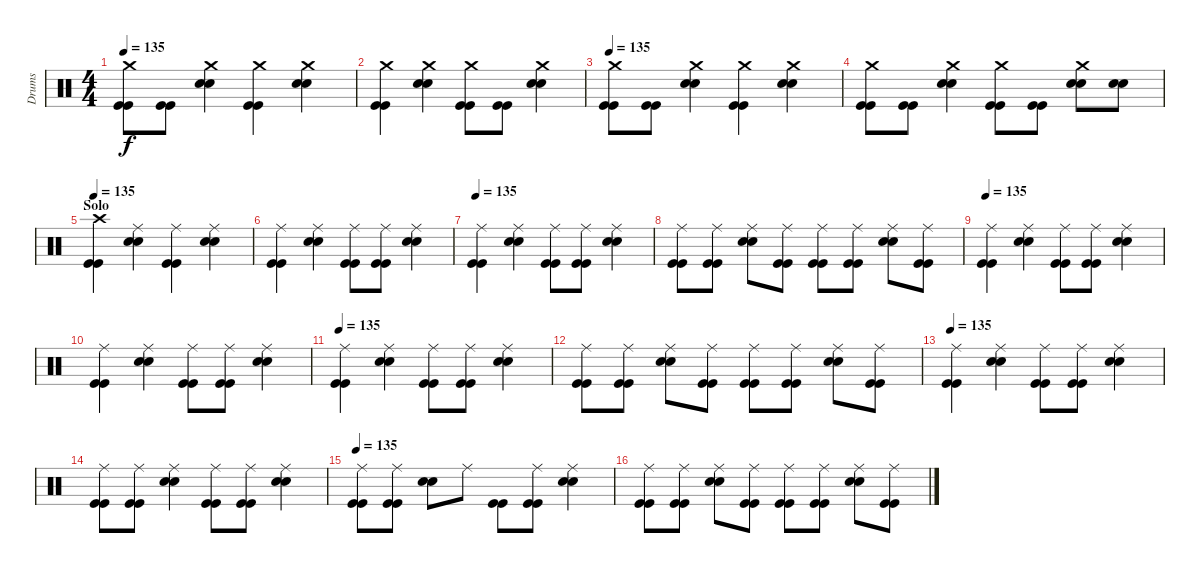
\track ("Drums" "Drums") {instrument percussion}
\staff {score}
\articulation defaults
\ts (4 4)
\tempo 135
\clef neutral
\ks c
("Crash medium (hit)" "Kick (hit)" "Kick (hit)").8{dy f} ("Kick (hit)" "Kick (hit)").8 ("Crash medium (hit)" "Electric Snare (hit)" "Electric Snare (hit)").4 ("Crash medium (hit)" "Kick (hit)" "Kick (hit)").4 ("Crash medium (hit)" "Electric Snare (hit)" "Electric Snare (hit)").4 |
("Crash medium (hit)" "Kick (hit)" "Kick (hit)").4 ("Crash medium (hit)" "Electric Snare (hit)" "Electric Snare (hit)").4 ("Crash medium (hit)" "Kick (hit)" "Kick (hit)").8 ("Kick (hit)" "Kick (hit)").8 ("Crash medium (hit)" "Electric Snare (hit)" "Electric Snare (hit)").4 |
\tempo 135
("Crash medium (hit)" "Kick (hit)" "Kick (hit)").8 ("Kick (hit)" "Kick (hit)").8 ("Crash medium (hit)" "Electric Snare (hit)" "Electric Snare (hit)").4 ("Crash medium (hit)" "Kick (hit)" "Kick (hit)").4 ("Crash medium (hit)" "Electric Snare (hit)" "Electric Snare (hit)").4 |
("Crash medium (hit)" "Kick (hit)" "Kick (hit)").8 ("Kick (hit)" "Kick (hit)").8 ("Crash medium (hit)" "Electric Snare (hit)" "Electric Snare (hit)").4 ("Crash medium (hit)" "Kick (hit)" "Kick (hit)").8 ("Kick (hit)" "Kick (hit)").8 ("Crash medium (hit)" "Electric Snare (hit)" "Electric Snare (hit)").8 ("Electric Snare (hit)" "Electric Snare (hit)").8 |
\section ("" "Solo")
\tempo 135
("Crash high (hit)" "Kick (hit)" "Kick (hit)").4 ("Ride (middle)" "Electric Snare (hit)" "Electric Snare (hit)").4 ("Ride (middle)" "Kick (hit)" "Kick (hit)").4 ("Ride (middle)" "Electric Snare (hit)" "Electric Snare (hit)").4 |
("Ride (middle)" "Kick (hit)" "Kick (hit)").4 ("Ride (middle)" "Electric Snare (hit)" "Electric Snare (hit)").4 ("Ride (middle)" "Kick (hit)" "Kick (hit)").8 ("Ride (middle)" "Kick (hit)" "Kick (hit)").8 ("Ride (middle)" "Electric Snare (hit)" "Electric Snare (hit)").4 |
\tempo 135
("Ride (middle)" "Kick (hit)" "Kick (hit)").4 ("Ride (middle)" "Electric Snare (hit)" "Electric Snare (hit)").4 ("Ride (middle)" "Kick (hit)" "Kick (hit)").8 ("Ride (middle)" "Kick (hit)" "Kick (hit)").8 ("Ride (middle)" "Electric Snare (hit)" "Electric Snare (hit)").4 |
("Ride (middle)" "Kick (hit)" "Kick (hit)").8 ("Ride (middle)" "Kick (hit)" "Kick (hit)").8 ("Ride (middle)" "Electric Snare (hit)" "Electric Snare (hit)").8 ("Ride (middle)" "Kick (hit)" "Kick (hit)").8 ("Ride (middle)" "Kick (hit)" "Kick (hit)").8 ("Ride (middle)" "Kick (hit)" "Kick (hit)").8 ("Ride (middle)" "Electric Snare (hit)" "Electric Snare (hit)").8 ("Ride (middle)" "Kick (hit)" "Kick (hit)").8 |
\tempo 135
("Ride (middle)" "Kick (hit)" "Kick (hit)").4 ("Ride (middle)" "Electric Snare (hit)" "Electric Snare (hit)").4 ("Ride (middle)" "Kick (hit)" "Kick (hit)").8 ("Ride (middle)" "Kick (hit)" "Kick (hit)").8 ("Ride (middle)" "Electric Snare (hit)" "Electric Snare (hit)").4 |
("Ride (middle)" "Kick (hit)" "Kick (hit)").4 ("Ride (middle)" "Electric Snare (hit)" "Electric Snare (hit)").4 ("Ride (middle)" "Kick (hit)" "Kick (hit)").8 ("Ride (middle)" "Kick (hit)" "Kick (hit)").8 ("Ride (middle)" "Electric Snare (hit)" "Electric Snare (hit)").4 |
\tempo 135
("Ride (middle)" "Kick (hit)" "Kick (hit)").4 ("Ride (middle)" "Electric Snare (hit)" "Electric Snare (hit)").4 ("Ride (middle)" "Kick (hit)" "Kick (hit)").8 ("Ride (middle)" "Kick (hit)" "Kick (hit)").8 ("Ride (middle)" "Electric Snare (hit)" "Electric Snare (hit)").4 |
("Ride (middle)" "Kick (hit)" "Kick (hit)").8 ("Ride (middle)" "Kick (hit)" "Kick (hit)").8 ("Ride (middle)" "Electric Snare (hit)" "Electric Snare (hit)").8 ("Ride (middle)" "Kick (hit)" "Kick (hit)").8 ("Ride (middle)" "Kick (hit)" "Kick (hit)").8 ("Ride (middle)" "Kick (hit)" "Kick (hit)").8 ("Ride (middle)" "Electric Snare (hit)" "Electric Snare (hit)").8 ("Ride (middle)" "Kick (hit)" "Kick (hit)").8 |
\tempo 135
("Ride (middle)" "Kick (hit)" "Kick (hit)").4 ("Ride (middle)" "Electric Snare (hit)" "Electric Snare (hit)").4 ("Ride (middle)" "Kick (hit)" "Kick (hit)").8 ("Ride (middle)" "Kick (hit)" "Kick (hit)").8 ("Ride (middle)" "Electric Snare (hit)" "Electric Snare (hit)").4 |
("Ride (middle)" "Kick (hit)" "Kick (hit)").8 ("Ride (middle)" "Kick (hit)" "Kick (hit)").8 ("Ride (middle)" "Electric Snare (hit)" "Electric Snare (hit)").4 ("Ride (middle)" "Kick (hit)" "Kick (hit)").8 ("Ride (middle)" "Kick (hit)" "Kick (hit)").8 ("Ride (middle)" "Electric Snare (hit)" "Electric Snare (hit)").4 |
\tempo 135
("Ride (middle)" "Kick (hit)" "Kick (hit)").8 ("Ride (middle)" "Kick (hit)" "Kick (hit)").8 ("Electric Snare (hit)" "Electric Snare (hit)").8 "Ride (middle)".8 ("Kick (hit)" "Kick (hit)").8 ("Ride (middle)" "Kick (hit)" "Kick (hit)").8 ("Ride (middle)" "Electric Snare (hit)" "Electric Snare (hit)").4 |
("Ride (middle)" "Kick (hit)" "Kick (hit)").8 ("Ride (middle)" "Kick (hit)" "Kick (hit)").8 ("Ride (middle)" "Electric Snare (hit)" "Electric Snare (hit)").8 ("Ride (middle)" "Kick (hit)" "Kick (hit)").8 ("Ride (middle)" "Kick (hit)" "Kick (hit)").8 ("Ride (middle)" "Kick (hit)" "Kick (hit)").8 ("Ride (middle)" "Electric Snare (hit)" "Electric Snare (hit)").8 ("Ride (middle)" "Kick (hit)" "Kick (hit)").8
